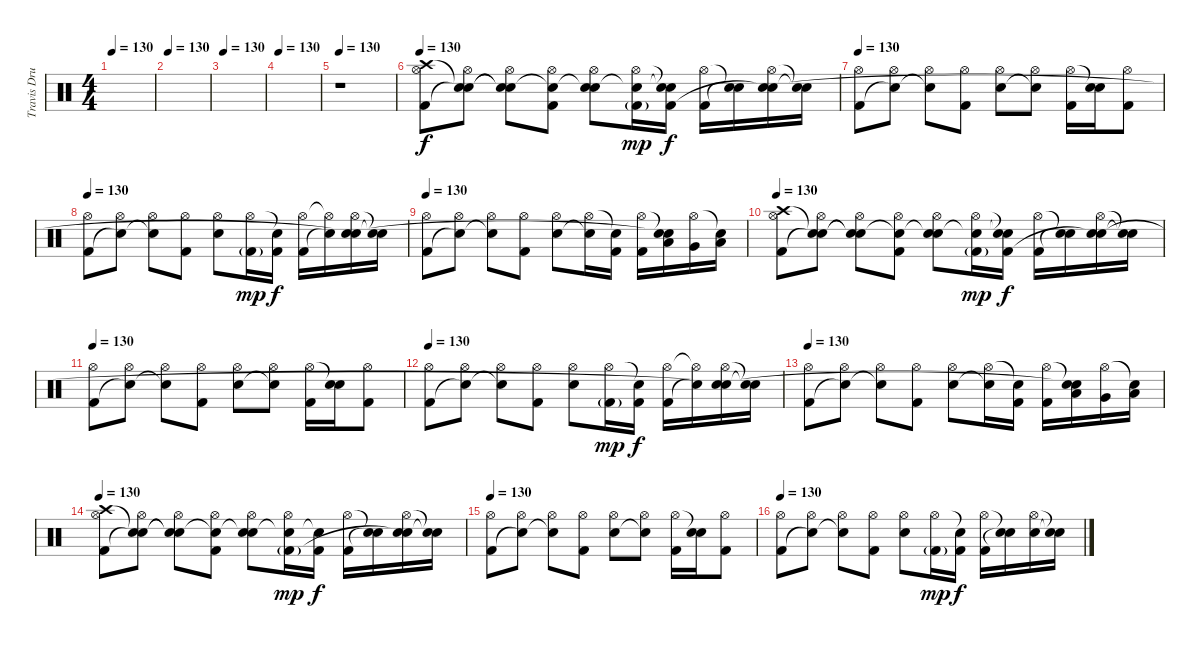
\track ("Travis Drums" "Travis Dru") {instrument percussion}
\staff {score}
\articulation defaults
\ts (4 4)
\tempo 130
\clef neutral
\ks c
|
\tempo 130
|
\tempo 130
|
\tempo 130
|
\tempo 130
r.1 |
\tempo 130
("Crash high (hit)" "Hi-Hat (open)" "Kick (hit) 2").8 ("Snare (hit)"{t} "Hi-Hat (open)" "Snare (hit)"{t}).8 ("Snare (hit)"{t} "Hi-Hat (open)" "Snare (hit)"{t}).8 ("Snare (hit)"{t} "Hi-Hat (open)" "Kick (hit) 2").8 ("Snare (hit)"{t} "Hi-Hat (open)" "Electric Snare (hit)").8 ("Snare (hit)"{t} "Hi-Hat (open)" "Kick (hit) 2"{g}).16{dy mp} ("Snare (hit)"{t} "Snare (hit)"{t} "Kick (hit) 2").16{dy f} ("Hi-Hat (open)" "Kick (hit) 2").16 ("Snare (hit)"{t} "Snare (hit)"{t}).16 ("Hi-Hat (open)" "Electric Snare (hit)" "Snare (hit)"{t}).16 ("Snare (hit)"{t} "Electric Snare (hit)"{t}).16 |
\tempo 130
("Hi-Hat (open)" "Kick (hit) 2").8 ("Hi-Hat (open)" "Snare (hit)"{t}).8 ("Hi-Hat (open)" "Snare (hit)"{t}).8 ("Hi-Hat (open)" "Kick (hit) 2").8 ("Hi-Hat (open)" "Electric Snare (hit)").8 ("Hi-Hat (open)" "Snare (hit)"{t}).8 ("Hi-Hat (open)" "Kick (hit) 2").16 ("Snare (hit)"{t} "Electric Snare (hit)").16 ("Hi-Hat (open)" "Kick (hit) 2").8 |
\tempo 130
("Hi-Hat (open)" "Kick (hit) 2").8 ("Hi-Hat (open)" "Snare (hit)"{t}).8 ("Hi-Hat (open)" "Snare (hit)"{t}).8 ("Hi-Hat (open)" "Kick (hit) 2").8 ("Hi-Hat (open)" "Electric Snare (hit)").8 ("Hi-Hat (open)" "Kick (hit) 2"{g}).16{dy mp} ("Snare (hit)"{t} "Kick (hit) 2").16{dy f} ("Hi-Hat (open)" "Kick (hit) 2").16 ("Hi-Hat (open)"{t} "Snare (hit)"{t}).16 ("Hi-Hat (open)" "Electric Snare (hit)" "Snare (hit)"{t}).16 ("Snare (hit)"{t} "Electric Snare (hit)"{t}).16 |
\tempo 130
("Hi-Hat (open)" "Kick (hit) 2").8 ("Hi-Hat (open)" "Snare (hit)"{t}).8 ("Hi-Hat (open)" "Snare (hit)"{t}).8 ("Hi-Hat (open)" "Kick (hit) 2").8 ("Hi-Hat (open)" "Electric Snare (hit)").8 ("Hi-Hat (open)" "Snare (hit)"{t}).16 ("Snare (hit)"{t} "Kick (hit) 2").16 ("Hi-Hat (open)" "Kick (hit) 2").16 ("Snare (hit)"{t} "Low Tom (hit)" "Snare (hit)"{t}).16 ("Hi-Hat (open)" "Very Low Tom (hit)").16 ("Snare (hit)"{t} "Low Floor Tom (hit)").16 |
\tempo 130
("Crash high (hit)" "Hi-Hat (open)" "Kick (hit) 2").8 ("Snare (hit)"{t} "Hi-Hat (open)" "Snare (hit)"{t}).8 ("Snare (hit)"{t} "Hi-Hat (open)" "Snare (hit)"{t}).8 ("Snare (hit)"{t} "Hi-Hat (open)" "Kick (hit) 2").8 ("Snare (hit)"{t} "Hi-Hat (open)" "Electric Snare (hit)").8 ("Snare (hit)"{t} "Hi-Hat (open)" "Kick (hit) 2"{g}).16{dy mp} ("Snare (hit)"{t} "Snare (hit)"{t} "Kick (hit) 2").16{dy f} ("Hi-Hat (open)" "Kick (hit) 2").16 ("Snare (hit)"{t} "Snare (hit)"{t}).16 ("Hi-Hat (open)" "Electric Snare (hit)" "Snare (hit)"{t}).16 ("Snare (hit)"{t} "Electric Snare (hit)"{t}).16 |
\tempo 130
("Hi-Hat (open)" "Kick (hit) 2").8 ("Hi-Hat (open)" "Snare (hit)"{t}).8 ("Hi-Hat (open)" "Snare (hit)"{t}).8 ("Hi-Hat (open)" "Kick (hit) 2").8 ("Hi-Hat (open)" "Electric Snare (hit)").8 ("Hi-Hat (open)" "Snare (hit)"{t}).8 ("Hi-Hat (open)" "Kick (hit) 2").16 ("Snare (hit)"{t} "Electric Snare (hit)").16 ("Hi-Hat (open)" "Kick (hit) 2").8 |
\tempo 130
("Hi-Hat (open)" "Kick (hit) 2").8 ("Hi-Hat (open)" "Snare (hit)"{t}).8 ("Hi-Hat (open)" "Snare (hit)"{t}).8 ("Hi-Hat (open)" "Kick (hit) 2").8 ("Hi-Hat (open)" "Electric Snare (hit)").8 ("Hi-Hat (open)" "Kick (hit) 2"{g}).16{dy mp} ("Snare (hit)"{t} "Kick (hit) 2").16{dy f} ("Hi-Hat (open)" "Kick (hit) 2").16 ("Hi-Hat (open)"{t} "Snare (hit)"{t}).16 ("Hi-Hat (open)" "Electric Snare (hit)" "Snare (hit)"{t}).16 ("Snare (hit)"{t} "Electric Snare (hit)"{t}).16 |
\tempo 130
("Hi-Hat (open)" "Kick (hit) 2").8 ("Hi-Hat (open)" "Snare (hit)"{t}).8 ("Hi-Hat (open)" "Snare (hit)"{t}).8 ("Hi-Hat (open)" "Kick (hit) 2").8 ("Hi-Hat (open)" "Electric Snare (hit)").8 ("Hi-Hat (open)" "Snare (hit)"{t}).16 ("Snare (hit)"{t} "Kick (hit) 2").16 ("Hi-Hat (open)" "Kick (hit) 2").16 ("Snare (hit)"{t} "Low Tom (hit)" "Snare (hit)"{t}).16 ("Hi-Hat (open)" "Very Low Tom (hit)").16 ("Snare (hit)"{t} "Low Floor Tom (hit)").16 |
\tempo 130
("Crash high (hit)" "Hi-Hat (open)" "Kick (hit) 2").8 ("Snare (hit)"{t} "Hi-Hat (open)" "Snare (hit)"{t}).8 ("Snare (hit)"{t} "Hi-Hat (open)" "Snare (hit)"{t}).8 ("Snare (hit)"{t} "Hi-Hat (open)" "Kick (hit) 2").8 ("Snare (hit)"{t} "Hi-Hat (open)" "Electric Snare (hit)").8 ("Snare (hit)"{t} "Hi-Hat (open)" "Kick (hit) 2"{g}).16{dy mp} ("Snare (hit)"{t} "Kick (hit) 2").16{dy f} ("Hi-Hat (open)" "Kick (hit) 2").16 ("Snare (hit)"{t} "Snare (hit)"{t}).16 ("Hi-Hat (open)" "Electric Snare (hit)" "Snare (hit)"{t}).16 ("Snare (hit)"{t} "Snare (hit)"{t}).16 |
\tempo 130
("Hi-Hat (open)" "Kick (hit) 2").8 ("Hi-Hat (open)" "Snare (hit)"{t}).8 ("Hi-Hat (open)" "Snare (hit)"{t}).8 ("Hi-Hat (open)" "Kick (hit) 2").8 ("Hi-Hat (open)" "Electric Snare (hit)").8 ("Hi-Hat (open)" "Snare (hit)"{t}).8 ("Hi-Hat (open)" "Kick (hit) 2").16 ("Snare (hit)"{t} "Electric Snare (hit)").16 ("Hi-Hat (open)" "Kick (hit) 2").8 |
\tempo 130
("Hi-Hat (open)" "Kick (hit) 2").8 ("Hi-Hat (open)" "Snare (hit)"{t}).8 ("Hi-Hat (open)" "Snare (hit)"{t}).8 ("Hi-Hat (open)" "Kick (hit) 2").8 ("Hi-Hat (open)" "Electric Snare (hit)").8 ("Hi-Hat (open)" "Kick (hit) 2"{g}).16{dy mp} ("Snare (hit)"{t} "Kick (hit) 2").16{dy f} ("Hi-Hat (open)" "Kick (hit) 2").16 ("Snare (hit)"{t} "Snare (hit)"{t}).16 ("Hi-Hat (open)" "Electric Snare (hit)").16 ("Snare (hit)"{t} "Snare (hit)"{t}).16
